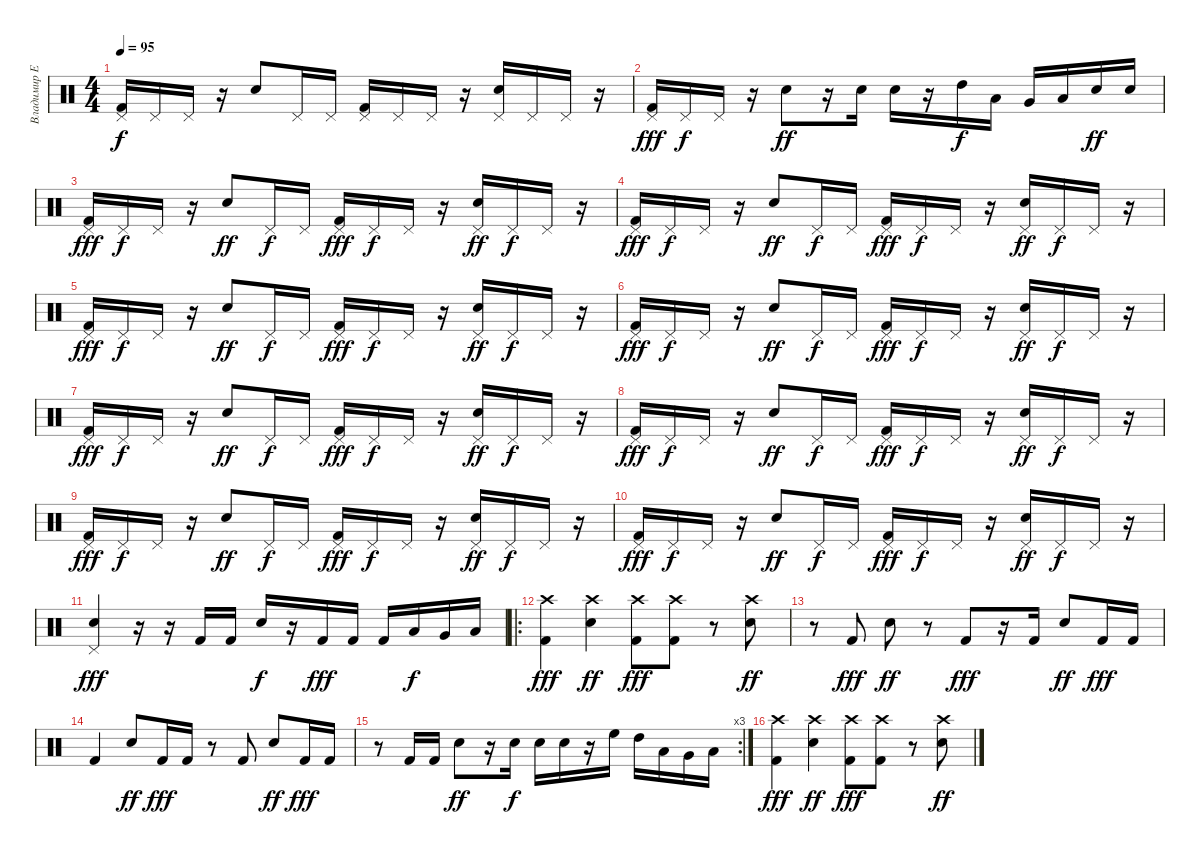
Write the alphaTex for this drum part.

\track ("Владимир Ермаков" "Владимир Е") {instrument percussion}
\staff {score}
\articulation defaults
\ts (4 4)
\tempo 95
\clef neutral
\ks c
("Kick (hit) 2" "Pedal Hi-Hat (hit)").16{dy f} "Pedal Hi-Hat (hit)".16 "Pedal Hi-Hat (hit)".16 r.16 "Electric Snare (hit)".8 "Pedal Hi-Hat (hit)".16 "Pedal Hi-Hat (hit)".16 ("Kick (hit) 2" "Pedal Hi-Hat (hit)").16 "Pedal Hi-Hat (hit)".16 "Pedal Hi-Hat (hit)".16 r.16 ("Electric Snare (hit)" "Pedal Hi-Hat (hit)").16 "Pedal Hi-Hat (hit)".16 "Pedal Hi-Hat (hit)".16 r.16 |
("Kick (hit) 2" "Pedal Hi-Hat (hit)").16{dy fff} "Pedal Hi-Hat (hit)".16{dy f} "Pedal Hi-Hat (hit)".16 r.16 "Electric Snare (hit)".8{dy ff} r.16 "Electric Snare (hit)".16 "Electric Snare (hit)".16 r.16 "High Tom (hit)".16{dy f} "Low Tom (hit)".16 "Very Low Tom (hit)".16 "Low Floor Tom (hit)".16 "Electric Snare (hit)".16{dy ff} "Electric Snare (hit)".16 |
("Kick (hit) 2" "Pedal Hi-Hat (hit)").16{dy fff} "Pedal Hi-Hat (hit)".16{dy f} "Pedal Hi-Hat (hit)".16 r.16 "Electric Snare (hit)".8{dy ff} "Pedal Hi-Hat (hit)".16{dy f} "Pedal Hi-Hat (hit)".16 ("Kick (hit) 2" "Pedal Hi-Hat (hit)").16{dy fff} "Pedal Hi-Hat (hit)".16{dy f} "Pedal Hi-Hat (hit)".16 r.16 ("Electric Snare (hit)" "Pedal Hi-Hat (hit)").16{dy ff} "Pedal Hi-Hat (hit)".16{dy f} "Pedal Hi-Hat (hit)".16 r.16 |
("Kick (hit) 2" "Pedal Hi-Hat (hit)").16{dy fff} "Pedal Hi-Hat (hit)".16{dy f} "Pedal Hi-Hat (hit)".16 r.16 "Electric Snare (hit)".8{dy ff} "Pedal Hi-Hat (hit)".16{dy f} "Pedal Hi-Hat (hit)".16 ("Kick (hit) 2" "Pedal Hi-Hat (hit)").16{dy fff} "Pedal Hi-Hat (hit)".16{dy f} "Pedal Hi-Hat (hit)".16 r.16 ("Electric Snare (hit)" "Pedal Hi-Hat (hit)").16{dy ff} "Pedal Hi-Hat (hit)".16{dy f} "Pedal Hi-Hat (hit)".16 r.16 |
("Kick (hit) 2" "Pedal Hi-Hat (hit)").16{dy fff} "Pedal Hi-Hat (hit)".16{dy f} "Pedal Hi-Hat (hit)".16 r.16 "Electric Snare (hit)".8{dy ff} "Pedal Hi-Hat (hit)".16{dy f} "Pedal Hi-Hat (hit)".16 ("Kick (hit) 2" "Pedal Hi-Hat (hit)").16{dy fff} "Pedal Hi-Hat (hit)".16{dy f} "Pedal Hi-Hat (hit)".16 r.16 ("Electric Snare (hit)" "Pedal Hi-Hat (hit)").16{dy ff} "Pedal Hi-Hat (hit)".16{dy f} "Pedal Hi-Hat (hit)".16 r.16 |
("Kick (hit) 2" "Pedal Hi-Hat (hit)").16{dy fff} "Pedal Hi-Hat (hit)".16{dy f} "Pedal Hi-Hat (hit)".16 r.16 "Electric Snare (hit)".8{dy ff} "Pedal Hi-Hat (hit)".16{dy f} "Pedal Hi-Hat (hit)".16 ("Kick (hit) 2" "Pedal Hi-Hat (hit)").16{dy fff} "Pedal Hi-Hat (hit)".16{dy f} "Pedal Hi-Hat (hit)".16 r.16 ("Electric Snare (hit)" "Pedal Hi-Hat (hit)").16{dy ff} "Pedal Hi-Hat (hit)".16{dy f} "Pedal Hi-Hat (hit)".16 r.16 |
("Kick (hit) 2" "Pedal Hi-Hat (hit)").16{dy fff} "Pedal Hi-Hat (hit)".16{dy f} "Pedal Hi-Hat (hit)".16 r.16 "Electric Snare (hit)".8{dy ff} "Pedal Hi-Hat (hit)".16{dy f} "Pedal Hi-Hat (hit)".16 ("Kick (hit) 2" "Pedal Hi-Hat (hit)").16{dy fff} "Pedal Hi-Hat (hit)".16{dy f} "Pedal Hi-Hat (hit)".16 r.16 ("Electric Snare (hit)" "Pedal Hi-Hat (hit)").16{dy ff} "Pedal Hi-Hat (hit)".16{dy f} "Pedal Hi-Hat (hit)".16 r.16 |
("Kick (hit) 2" "Pedal Hi-Hat (hit)").16{dy fff} "Pedal Hi-Hat (hit)".16{dy f} "Pedal Hi-Hat (hit)".16 r.16 "Electric Snare (hit)".8{dy ff} "Pedal Hi-Hat (hit)".16{dy f} "Pedal Hi-Hat (hit)".16 ("Kick (hit) 2" "Pedal Hi-Hat (hit)").16{dy fff} "Pedal Hi-Hat (hit)".16{dy f} "Pedal Hi-Hat (hit)".16 r.16 ("Electric Snare (hit)" "Pedal Hi-Hat (hit)").16{dy ff} "Pedal Hi-Hat (hit)".16{dy f} "Pedal Hi-Hat (hit)".16 r.16 |
("Kick (hit) 2" "Pedal Hi-Hat (hit)").16{dy fff} "Pedal Hi-Hat (hit)".16{dy f} "Pedal Hi-Hat (hit)".16 r.16 "Electric Snare (hit)".8{dy ff} "Pedal Hi-Hat (hit)".16{dy f} "Pedal Hi-Hat (hit)".16 ("Kick (hit) 2" "Pedal Hi-Hat (hit)").16{dy fff} "Pedal Hi-Hat (hit)".16{dy f} "Pedal Hi-Hat (hit)".16 r.16 ("Electric Snare (hit)" "Pedal Hi-Hat (hit)").16{dy ff} "Pedal Hi-Hat (hit)".16{dy f} "Pedal Hi-Hat (hit)".16 r.16 |
("Kick (hit) 2" "Pedal Hi-Hat (hit)").16{dy fff} "Pedal Hi-Hat (hit)".16{dy f} "Pedal Hi-Hat (hit)".16 r.16 "Electric Snare (hit)".8{dy ff} "Pedal Hi-Hat (hit)".16{dy f} "Pedal Hi-Hat (hit)".16 ("Kick (hit) 2" "Pedal Hi-Hat (hit)").16{dy fff} "Pedal Hi-Hat (hit)".16{dy f} "Pedal Hi-Hat (hit)".16 r.16 ("Electric Snare (hit)" "Pedal Hi-Hat (hit)").16{dy ff} "Pedal Hi-Hat (hit)".16{dy f} "Pedal Hi-Hat (hit)".16 r.16 |
("Electric Snare (hit)" "Pedal Hi-Hat (hit)").4{dy fff} r.16 r.16 "Kick (hit) 2".16 "Kick (hit) 2".16 "Electric Snare (hit)".16{dy f} r.16 "Kick (hit) 2".16{dy fff} "Kick (hit) 2".16 "Kick (hit) 2".16 "Low Tom (hit)".16{dy f} "Very Low Tom (hit)".16 "Low Floor Tom (hit)".16 |
\ro
("Kick (hit) 2" "Crash high (hit)").4{dy fff} ("Electric Snare (hit)" "Crash high (hit)").4{dy ff} ("Kick (hit) 2" "Crash high (hit)").8{dy fff} ("Kick (hit) 2" "Crash high (hit)").8 r.8 ("Electric Snare (hit)" "Crash high (hit)").8{dy ff} |
r.8 "Kick (hit) 2".8{dy fff} "Electric Snare (hit)".8{dy ff} r.8 "Kick (hit) 2".8{dy fff} r.16 "Kick (hit) 2".16 "Electric Snare (hit)".8{dy ff} "Kick (hit) 2".16{dy fff} "Kick (hit) 2".16 |
"Kick (hit) 2".4 "Electric Snare (hit)".8{dy ff} "Kick (hit) 2".16{dy fff} "Kick (hit) 2".16 r.8 "Kick (hit) 2".8 "Electric Snare (hit)".8{dy ff} "Kick (hit) 2".16{dy fff} "Kick (hit) 2".16 |
\rc 3
r.8 "Kick (hit) 2".16 "Kick (hit) 2".16 "Electric Snare (hit)".8{dy ff} r.16 "Electric Snare (hit)".16{dy f} "Electric Snare (hit)".16 "Electric Snare (hit)".16 r.16 "High Floor Tom (hit)".16 "High Tom (hit)".16 "Low Tom (hit)".16 "Very Low Tom (hit)".16 "Low Floor Tom (hit)".16 |
("Kick (hit) 2" "Crash high (hit)").4{dy fff} ("Electric Snare (hit)" "Crash high (hit)").4{dy ff} ("Kick (hit) 2" "Crash high (hit)").8{dy fff} ("Kick (hit) 2" "Crash high (hit)").8 r.8 ("Electric Snare (hit)" "Crash high (hit)").8{dy ff}
